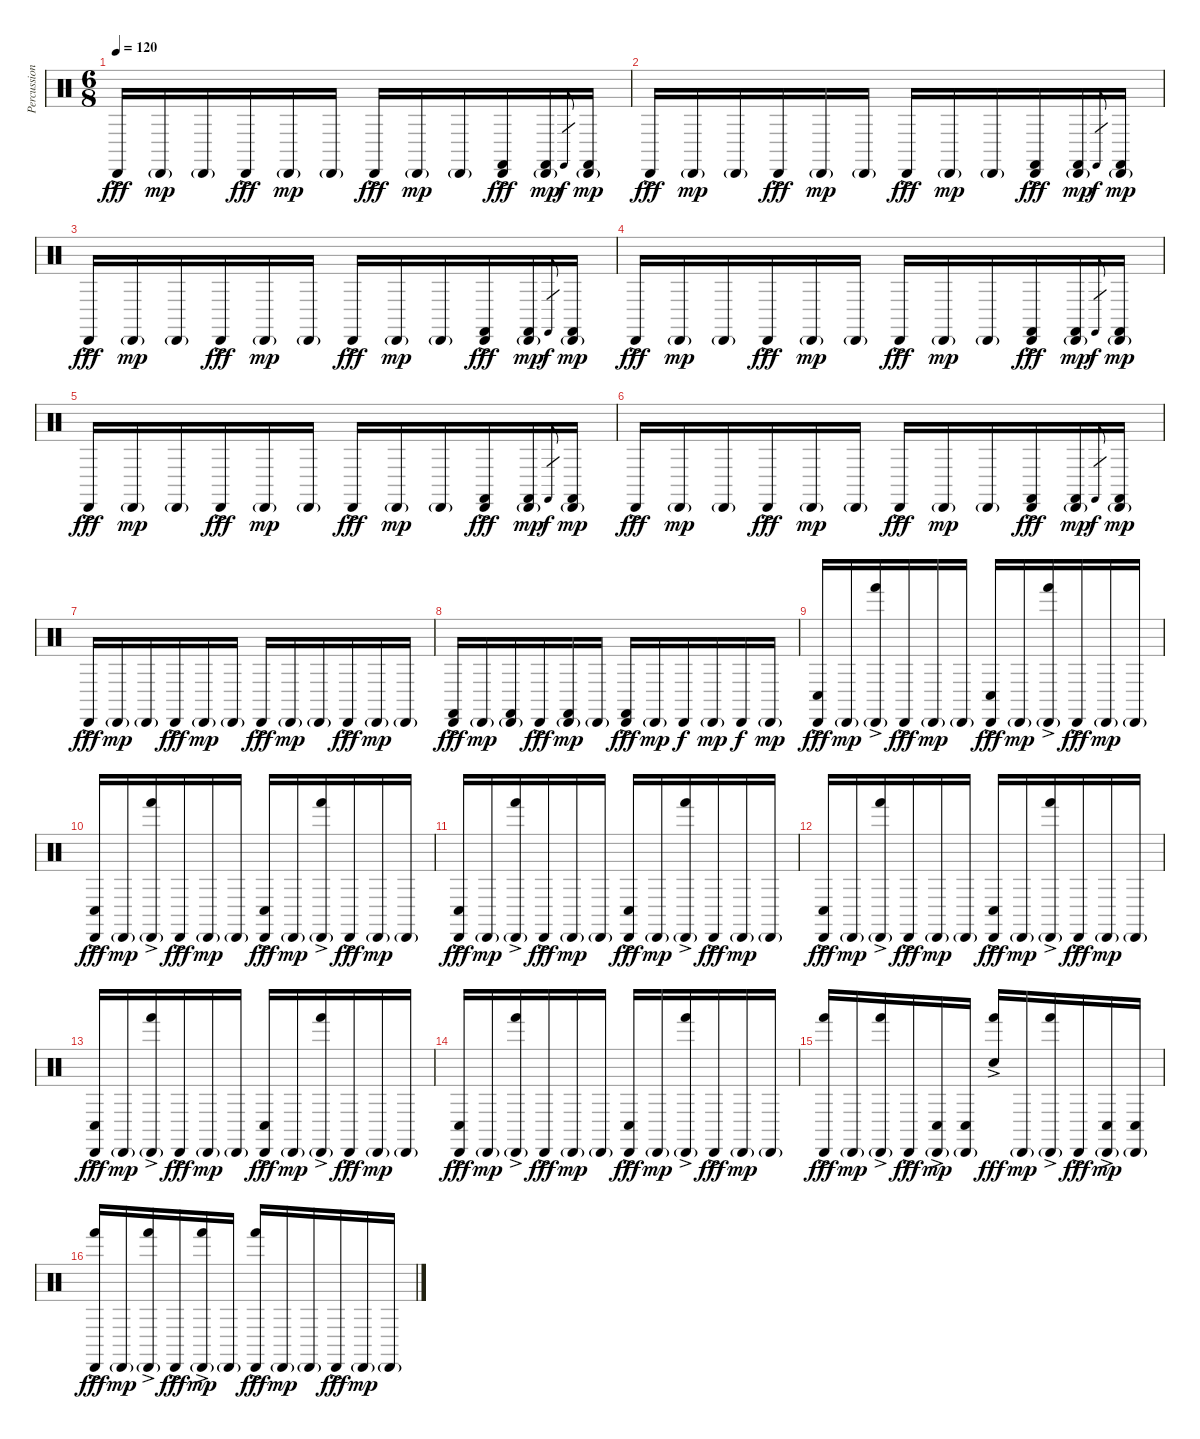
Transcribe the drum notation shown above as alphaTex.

\track ("Percussion" "Percussion") {instrument percussion}
\staff {score}
\articulation defaults
\ts (6 8)
\tempo 120
\clef neutral
\ks c "Cabasa (hit)"{ac}.16{dy fff} "Cabasa (hit)"{g}.16{dy mp} "Cabasa (hit)"{g}.16 "Cabasa (hit)"{ac}.16{dy fff} "Cabasa (hit)"{g}.16{dy mp} "Cabasa (hit)"{g}.16 "Cabasa (hit)"{ac}.16{dy fff} "Cabasa (hit)"{g}.16{dy mp} "Cabasa (hit)"{g}.16
("Castanets (hit)"{ac} "Cabasa (hit)"{ac}).16{dy fff} ("Castanets (hit)" "Cabasa (hit)"{g}).16{dy mp} "Castanets (hit)".8{gr dy f} ("Castanets (hit)" "Cabasa (hit)"{g}).16{dy mp} |
"Cabasa (hit)"{ac}.16{dy fff} "Cabasa (hit)"{g}.16{dy mp} "Cabasa (hit)"{g}.16 "Cabasa (hit)"{ac}.16{dy fff} "Cabasa (hit)"{g}.16{dy mp} "Cabasa (hit)"{g}.16 "Cabasa (hit)"{ac}.16{dy fff} "Cabasa (hit)"{g}.16{dy mp} "Cabasa (hit)"{g}.16 ("Castanets (hit)"{ac} "Cabasa (hit)"{ac}).16{dy fff} ("Castanets (hit)" "Cabasa (hit)"{g}).16{dy mp} "Castanets (hit)".8{gr dy f} ("Castanets (hit)" "Cabasa (hit)"{g}).16{dy mp} |
"Cabasa (hit)"{ac}.16{dy fff} "Cabasa (hit)"{g}.16{dy mp} "Cabasa (hit)"{g}.16 "Cabasa (hit)"{ac}.16{dy fff} "Cabasa (hit)"{g}.16{dy mp} "Cabasa (hit)"{g}.16 "Cabasa (hit)"{ac}.16{dy fff} "Cabasa (hit)"{g}.16{dy mp} "Cabasa (hit)"{g}.16 ("Castanets (hit)"{ac} "Cabasa (hit)"{ac}).16{dy fff} ("Castanets (hit)" "Cabasa (hit)"{g}).16{dy mp} "Castanets (hit)".8{gr dy f} ("Castanets (hit)" "Cabasa (hit)"{g}).16{dy mp} |
"Cabasa (hit)"{ac}.16{dy fff} "Cabasa (hit)"{g}.16{dy mp} "Cabasa (hit)"{g}.16 "Cabasa (hit)"{ac}.16{dy fff} "Cabasa (hit)"{g}.16{dy mp} "Cabasa (hit)"{g}.16 "Cabasa (hit)"{ac}.16{dy fff} "Cabasa (hit)"{g}.16{dy mp} "Cabasa (hit)"{g}.16 ("Castanets (hit)"{ac} "Cabasa (hit)"{ac}).16{dy fff} ("Castanets (hit)" "Cabasa (hit)"{g}).16{dy mp} "Castanets (hit)".8{gr dy f} ("Castanets (hit)" "Cabasa (hit)"{g}).16{dy mp} |
"Cabasa (hit)"{ac}.16{dy fff} "Cabasa (hit)"{g}.16{dy mp} "Cabasa (hit)"{g}.16 "Cabasa (hit)"{ac}.16{dy fff} "Cabasa (hit)"{g}.16{dy mp} "Cabasa (hit)"{g}.16 "Cabasa (hit)"{ac}.16{dy fff} "Cabasa (hit)"{g}.16{dy mp} "Cabasa (hit)"{g}.16 ("Castanets (hit)"{ac} "Cabasa (hit)"{ac}).16{dy fff} ("Castanets (hit)" "Cabasa (hit)"{g}).16{dy mp} "Castanets (hit)".8{gr dy f} ("Castanets (hit)" "Cabasa (hit)"{g}).16{dy mp} |
"Cabasa (hit)"{ac}.16{dy fff} "Cabasa (hit)"{g}.16{dy mp} "Cabasa (hit)"{g}.16 "Cabasa (hit)"{ac}.16{dy fff} "Cabasa (hit)"{g}.16{dy mp} "Cabasa (hit)"{g}.16 "Cabasa (hit)"{ac}.16{dy fff} "Cabasa (hit)"{g}.16{dy mp} "Cabasa (hit)"{g}.16 ("Castanets (hit)"{ac} "Cabasa (hit)"{ac}).16{dy fff} ("Castanets (hit)" "Cabasa (hit)"{g}).16{dy mp} "Castanets (hit)".8{gr dy f} ("Castanets (hit)" "Cabasa (hit)"{g}).16{dy mp} |
"Cabasa (hit)"{ac}.16{dy fff} "Cabasa (hit)"{g}.16{dy mp} "Cabasa (hit)"{g}.16 "Cabasa (hit)"{ac}.16{dy fff} "Cabasa (hit)"{g}.16{dy mp} "Cabasa (hit)"{g}.16 "Cabasa (hit)"{ac}.16{dy fff} "Cabasa (hit)"{g}.16{dy mp} "Cabasa (hit)"{g}.16 "Cabasa (hit)"{ac}.16{dy fff} "Cabasa (hit)"{g}.16{dy mp} "Cabasa (hit)"{g}.16 |
("Castanets (hit)" "Cabasa (hit)"{ac}).16{dy fff} "Cabasa (hit)"{g}.16{dy mp} ("Castanets (hit)" "Cabasa (hit)"{g}).16 "Cabasa (hit)"{ac}.16{dy fff} ("Castanets (hit)" "Cabasa (hit)"{g}).16{dy mp} "Cabasa (hit)"{g}.16 ("Castanets (hit)" "Cabasa (hit)"{ac}).16{dy fff} "Cabasa (hit)"{g}.16{dy mp} "Cabasa (hit)".16{dy f} "Cabasa (hit)"{g}.16{dy mp} "Cabasa (hit)".16{dy f} "Cabasa (hit)"{g}.16{dy mp} |
("Conga low (hit)"{ac} "Cabasa (hit)"{ac}).16{dy fff} "Cabasa (hit)"{g}.16{dy mp} ("Hand (hit)"{ac} "Cabasa (hit)"{g}).16 "Cabasa (hit)"{ac}.16{dy fff} "Cabasa (hit)"{g}.16{dy mp} "Cabasa (hit)"{g}.16 ("Conga low (hit)"{ac} "Cabasa (hit)"{ac}).16{dy fff} "Cabasa (hit)"{g}.16{dy mp} ("Hand (hit)"{ac} "Cabasa (hit)"{g}).16 "Cabasa (hit)"{ac}.16{dy fff} "Cabasa (hit)"{g}.16{dy mp} "Cabasa (hit)"{g}.16 |
("Conga low (hit)"{ac} "Cabasa (hit)"{ac}).16{dy fff} "Cabasa (hit)"{g}.16{dy mp} ("Hand (hit)"{ac} "Cabasa (hit)"{g}).16 "Cabasa (hit)"{ac}.16{dy fff} "Cabasa (hit)"{g}.16{dy mp} "Cabasa (hit)"{g}.16 ("Conga low (hit)"{ac} "Cabasa (hit)"{ac}).16{dy fff} "Cabasa (hit)"{g}.16{dy mp} ("Hand (hit)"{ac} "Cabasa (hit)"{g}).16 "Cabasa (hit)"{ac}.16{dy fff} "Cabasa (hit)"{g}.16{dy mp} "Cabasa (hit)"{g}.16 |
("Conga low (hit)"{ac} "Cabasa (hit)"{ac}).16{dy fff} "Cabasa (hit)"{g}.16{dy mp} ("Hand (hit)"{ac} "Cabasa (hit)"{g}).16 "Cabasa (hit)"{ac}.16{dy fff} "Cabasa (hit)"{g}.16{dy mp} "Cabasa (hit)"{g}.16 ("Conga low (hit)"{ac} "Cabasa (hit)"{ac}).16{dy fff} "Cabasa (hit)"{g}.16{dy mp} ("Hand (hit)"{ac} "Cabasa (hit)"{g}).16 "Cabasa (hit)"{ac}.16{dy fff} "Cabasa (hit)"{g}.16{dy mp} "Cabasa (hit)"{g}.16 |
("Conga low (hit)"{ac} "Cabasa (hit)"{ac}).16{dy fff} "Cabasa (hit)"{g}.16{dy mp} ("Hand (hit)"{ac} "Cabasa (hit)"{g}).16 "Cabasa (hit)"{ac}.16{dy fff} "Cabasa (hit)"{g}.16{dy mp} "Cabasa (hit)"{g}.16 ("Conga low (hit)"{ac} "Cabasa (hit)"{ac}).16{dy fff} "Cabasa (hit)"{g}.16{dy mp} ("Hand (hit)"{ac} "Cabasa (hit)"{g}).16 "Cabasa (hit)"{ac}.16{dy fff} "Cabasa (hit)"{g}.16{dy mp} "Cabasa (hit)"{g}.16 |
("Conga low (hit)"{ac} "Cabasa (hit)"{ac}).16{dy fff} "Cabasa (hit)"{g}.16{dy mp} ("Hand (hit)"{ac} "Cabasa (hit)"{g}).16 "Cabasa (hit)"{ac}.16{dy fff} "Cabasa (hit)"{g}.16{dy mp} "Cabasa (hit)"{g}.16 ("Conga low (hit)"{ac} "Cabasa (hit)"{ac}).16{dy fff} "Cabasa (hit)"{g}.16{dy mp} ("Hand (hit)"{ac} "Cabasa (hit)"{g}).16 "Cabasa (hit)"{ac}.16{dy fff} "Cabasa (hit)"{g}.16{dy mp} "Cabasa (hit)"{g}.16 |
("Conga low (hit)"{ac} "Cabasa (hit)"{ac}).16{dy fff} "Cabasa (hit)"{g}.16{dy mp} ("Hand (hit)"{ac} "Cabasa (hit)"{g}).16 "Cabasa (hit)"{ac}.16{dy fff} "Cabasa (hit)"{g}.16{dy mp} "Cabasa (hit)"{g}.16 ("Conga low (hit)"{ac} "Cabasa (hit)"{ac}).16{dy fff} "Cabasa (hit)"{g}.16{dy mp} ("Hand (hit)"{ac} "Cabasa (hit)"{g}).16 "Cabasa (hit)"{ac}.16{dy fff} "Cabasa (hit)"{g}.16{dy mp} "Cabasa (hit)"{g}.16 |
("Hand (hit)"{ac} "Cabasa (hit)"{ac}).16{dy fff} "Cabasa (hit)"{g}.16{dy mp} ("Hand (hit)"{ac} "Cabasa (hit)"{g}).16 "Cabasa (hit)"{ac}.16{dy fff} ("Conga low (hit)"{ac} "Cabasa (hit)"{g}).16{dy mp} ("Conga low (hit)" "Cabasa (hit)"{g}).16 ("Hand (hit)"{ac} "Snare (hit)"{ac}).16{dy fff} "Cabasa (hit)"{g}.16{dy mp} ("Hand (hit)"{ac} "Cabasa (hit)"{g}).16 "Cabasa (hit)"{ac}.16{dy fff} ("Conga low (hit)"{ac} "Cabasa (hit)"{g}).16{dy mp} ("Conga low (hit)" "Cabasa (hit)"{g}).16 |
("Hand (hit)"{ac} "Cabasa (hit)"{ac}).16{dy fff} "Cabasa (hit)"{g}.16{dy mp} ("Hand (hit)"{ac} "Cabasa (hit)"{g}).16 "Cabasa (hit)"{ac}.16{dy fff} ("Hand (hit)"{ac} "Cabasa (hit)"{g}).16{dy mp} "Cabasa (hit)"{g}.16 ("Hand (hit)"{ac} "Cabasa (hit)"{ac}).16{dy fff} "Cabasa (hit)"{g}.16{dy mp} "Cabasa (hit)"{g}.16 "Cabasa (hit)"{ac}.16{dy fff} "Cabasa (hit)"{g}.16{dy mp} "Cabasa (hit)"{g}.16
